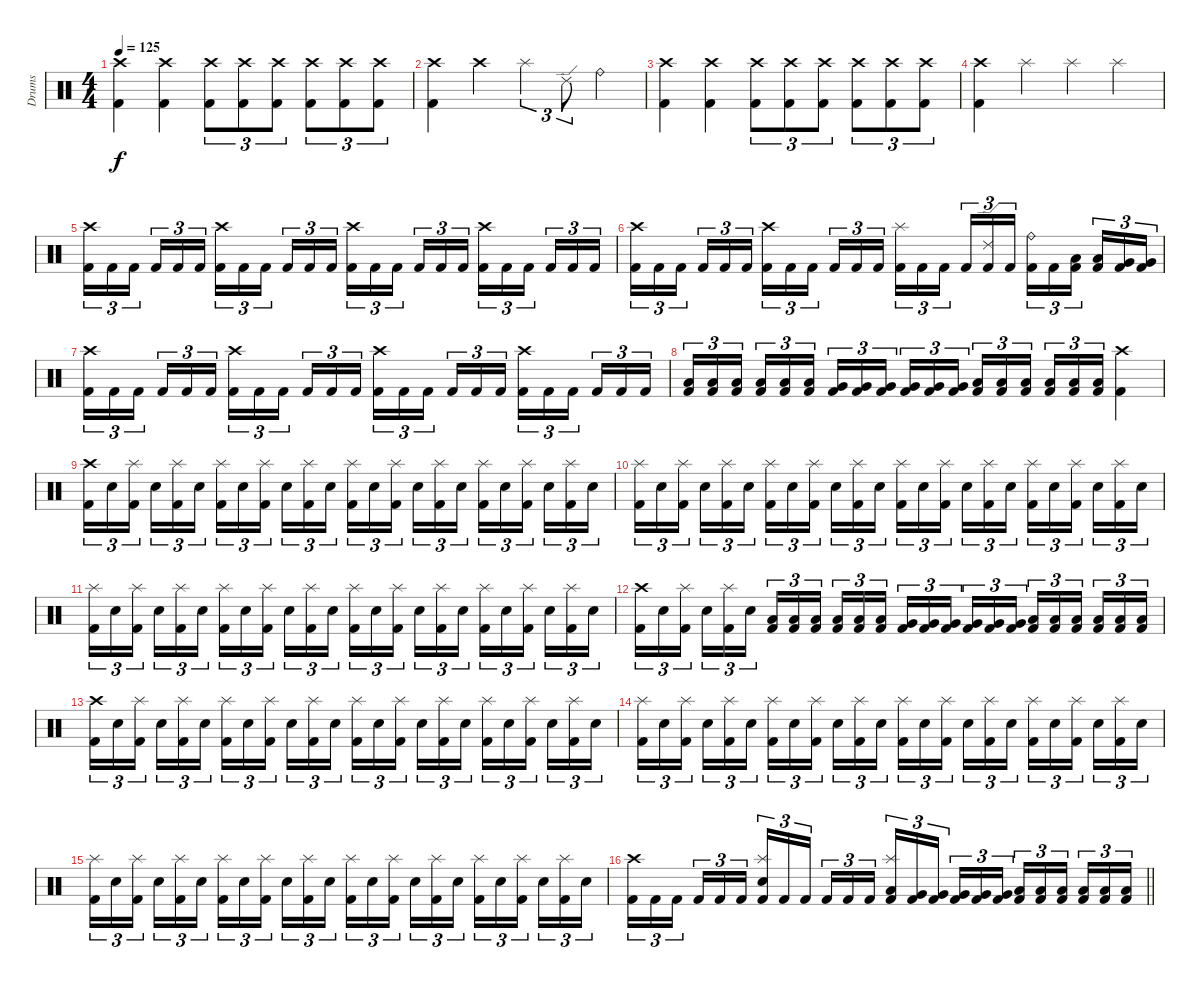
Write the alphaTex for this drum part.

\track ("Drums" "Drums") {instrument percussion}
\staff {score}
\articulation defaults
\ts (4 4)
\tempo 125
\clef neutral
\ks c
("Crash high (hit)" "Kick (hit) 2").4{dy f} ("Crash high (hit)" "Kick (hit) 2").4 ("Crash high (hit)" "Kick (hit) 2").8{tu (3 2)} ("Crash high (hit)" "Kick (hit) 2").8{tu (3 2)} ("Crash high (hit)" "Kick (hit) 2").8{tu (3 2)} ("Crash high (hit)" "Kick (hit) 2").8{tu (3 2)} ("Crash high (hit)" "Kick (hit) 2").8{tu (3 2)} ("Crash high (hit)" "Kick (hit) 2").8{tu (3 2)} |
("Crash high (hit)" "Kick (hit) 2").4 "Crash high (hit)".4 "Splash (hit)".4{tu (3 2)} "Ride (edge) 2".8{tu (3 2)} "Ride (bell)".4 |
("Crash high (hit)" "Kick (hit) 2").4 ("Crash high (hit)" "Kick (hit) 2").4 ("Crash high (hit)" "Kick (hit) 2").8{tu (3 2)} ("Crash high (hit)" "Kick (hit) 2").8{tu (3 2)} ("Crash high (hit)" "Kick (hit) 2").8{tu (3 2)} ("Crash high (hit)" "Kick (hit) 2").8{tu (3 2)} ("Crash high (hit)" "Kick (hit) 2").8{tu (3 2)} ("Crash high (hit)" "Kick (hit) 2").8{tu (3 2)} |
("Crash high (hit)" "Kick (hit) 2").4 "Splash (hit)".4 "Splash (hit)".4 "Splash (hit)".4 |
("Crash high (hit)" "Kick (hit) 2").16{tu (3 2)} "Kick (hit) 2".16{tu (3 2)} "Kick (hit) 2".16{tu (3 2) beam splitsecondary} "Kick (hit) 2".16{tu (3 2)} "Kick (hit) 2".16{tu (3 2)} "Kick (hit) 2".16{tu (3 2)} ("Crash high (hit)" "Kick (hit) 2").16{tu (3 2)} "Kick (hit) 2".16{tu (3 2)} "Kick (hit) 2".16{tu (3 2) beam splitsecondary} "Kick (hit) 2".16{tu (3 2)} "Kick (hit) 2".16{tu (3 2)} "Kick (hit) 2".16{tu (3 2)} ("Crash high (hit)" "Kick (hit) 2").16{tu (3 2)} "Kick (hit) 2".16{tu (3 2)} "Kick (hit) 2".16{tu (3 2) beam splitsecondary} "Kick (hit) 2".16{tu (3 2)} "Kick (hit) 2".16{tu (3 2)} "Kick (hit) 2".16{tu (3 2)} ("Crash high (hit)" "Kick (hit) 2").16{tu (3 2)} "Kick (hit) 2".16{tu (3 2)} "Kick (hit) 2".16{tu (3 2) beam splitsecondary} "Kick (hit) 2".16{tu (3 2)} "Kick (hit) 2".16{tu (3 2)} "Kick (hit) 2".16{tu (3 2)} |
("Crash high (hit)" "Kick (hit) 2").16{tu (3 2)} "Kick (hit) 2".16{tu (3 2)} "Kick (hit) 2".16{tu (3 2) beam splitsecondary} "Kick (hit) 2".16{tu (3 2)} "Kick (hit) 2".16{tu (3 2)} "Kick (hit) 2".16{tu (3 2)} ("Crash high (hit)" "Kick (hit) 2").16{tu (3 2)} "Kick (hit) 2".16{tu (3 2)} "Kick (hit) 2".16{tu (3 2) beam splitsecondary} "Kick (hit) 2".16{tu (3 2)} "Kick (hit) 2".16{tu (3 2)} "Kick (hit) 2".16{tu (3 2)} ("Splash (hit)" "Kick (hit) 2").16{tu (3 2)} "Kick (hit) 2".16{tu (3 2)} "Kick (hit) 2".16{tu (3 2) beam splitsecondary} "Kick (hit) 2".16{tu (3 2)} ("Ride (edge) 2" "Kick (hit) 2").16{tu (3 2)} "Kick (hit) 2".16{tu (3 2)} ("Ride (bell)" "Kick (hit) 2").16{tu (3 2)} "Kick (hit) 2".16{tu (3 2)} ("Low Tom (hit)" "Kick (hit) 2").16{tu (3 2) beam splitsecondary} ("Low Tom (hit)" "Kick (hit) 2").16{tu (3 2)} ("Very Low Tom (hit)" "Kick (hit) 2").16{tu (3 2)} ("Very Low Tom (hit)" "Kick (hit) 2").16{tu (3 2)} |
("Crash high (hit)" "Kick (hit) 2").16{tu (3 2)} "Kick (hit) 2".16{tu (3 2)} "Kick (hit) 2".16{tu (3 2) beam splitsecondary} "Kick (hit) 2".16{tu (3 2)} "Kick (hit) 2".16{tu (3 2)} "Kick (hit) 2".16{tu (3 2)} ("Crash high (hit)" "Kick (hit) 2").16{tu (3 2)} "Kick (hit) 2".16{tu (3 2)} "Kick (hit) 2".16{tu (3 2) beam splitsecondary} "Kick (hit) 2".16{tu (3 2)} "Kick (hit) 2".16{tu (3 2)} "Kick (hit) 2".16{tu (3 2)} ("Crash high (hit)" "Kick (hit) 2").16{tu (3 2)} "Kick (hit) 2".16{tu (3 2)} "Kick (hit) 2".16{tu (3 2) beam splitsecondary} "Kick (hit) 2".16{tu (3 2)} "Kick (hit) 2".16{tu (3 2)} "Kick (hit) 2".16{tu (3 2)} ("Crash high (hit)" "Kick (hit) 2").16{tu (3 2)} "Kick (hit) 2".16{tu (3 2)} "Kick (hit) 2".16{tu (3 2) beam splitsecondary} "Kick (hit) 2".16{tu (3 2)} "Kick (hit) 2".16{tu (3 2)} "Kick (hit) 2".16{tu (3 2)} |
("Low Tom (hit)" "Kick (hit) 2").16{tu (3 2)} ("Low Tom (hit)" "Kick (hit) 2").16{tu (3 2)} ("Low Tom (hit)" "Kick (hit) 2").16{tu (3 2) beam splitsecondary} ("Low Tom (hit)" "Kick (hit) 2").16{tu (3 2)} ("Low Tom (hit)" "Kick (hit) 2").16{tu (3 2)} ("Low Tom (hit)" "Kick (hit) 2").16{tu (3 2)} ("Very Low Tom (hit)" "Kick (hit) 2").16{tu (3 2)} ("Very Low Tom (hit)" "Kick (hit) 2").16{tu (3 2)} ("Very Low Tom (hit)" "Kick (hit) 2").16{tu (3 2) beam splitsecondary} ("Very Low Tom (hit)" "Kick (hit) 2").16{tu (3 2)} ("Very Low Tom (hit)" "Kick (hit) 2").16{tu (3 2)} ("Very Low Tom (hit)" "Kick (hit) 2").16{tu (3 2)} ("Low Floor Tom (hit)" "Kick (hit) 2").16{tu (3 2)} ("Low Floor Tom (hit)" "Kick (hit) 2").16{tu (3 2)} ("Low Floor Tom (hit)" "Kick (hit) 2").16{tu (3 2) beam splitsecondary} ("Low Floor Tom (hit)" "Kick (hit) 2").16{tu (3 2)} ("Low Floor Tom (hit)" "Kick (hit) 2").16{tu (3 2)} ("Low Floor Tom (hit)" "Kick (hit) 2").16{tu (3 2)} ("Crash high (hit)" "Kick (hit) 2").4 |
("Crash high (hit)" "Kick (hit) 2").16{tu (3 2)} "Electric Snare (hit)".16{tu (3 2)} ("Splash (hit)" "Kick (hit) 2").16{tu (3 2) beam splitsecondary} "Electric Snare (hit)".16{tu (3 2)} ("Splash (hit)" "Kick (hit) 2").16{tu (3 2)} "Electric Snare (hit)".16{tu (3 2)} ("Splash (hit)" "Kick (hit) 2").16{tu (3 2)} "Electric Snare (hit)".16{tu (3 2)} ("Splash (hit)" "Kick (hit) 2").16{tu (3 2) beam splitsecondary} "Electric Snare (hit)".16{tu (3 2)} ("Splash (hit)" "Kick (hit) 2").16{tu (3 2)} "Electric Snare (hit)".16{tu (3 2)} ("Splash (hit)" "Kick (hit) 2").16{tu (3 2)} "Electric Snare (hit)".16{tu (3 2)} ("Splash (hit)" "Kick (hit) 2").16{tu (3 2) beam splitsecondary} "Electric Snare (hit)".16{tu (3 2)} ("Splash (hit)" "Kick (hit) 2").16{tu (3 2)} "Electric Snare (hit)".16{tu (3 2)} ("Splash (hit)" "Kick (hit) 2").16{tu (3 2)} "Electric Snare (hit)".16{tu (3 2)} ("Splash (hit)" "Kick (hit) 2").16{tu (3 2) beam splitsecondary} "Electric Snare (hit)".16{tu (3 2)} ("Splash (hit)" "Kick (hit) 2").16{tu (3 2)} "Electric Snare (hit)".16{tu (3 2)} |
("Splash (hit)" "Kick (hit) 2").16{tu (3 2)} "Electric Snare (hit)".16{tu (3 2)} ("Splash (hit)" "Kick (hit) 2").16{tu (3 2) beam splitsecondary} "Electric Snare (hit)".16{tu (3 2)} ("Splash (hit)" "Kick (hit) 2").16{tu (3 2)} "Electric Snare (hit)".16{tu (3 2)} ("Splash (hit)" "Kick (hit) 2").16{tu (3 2)} "Electric Snare (hit)".16{tu (3 2)} ("Splash (hit)" "Kick (hit) 2").16{tu (3 2) beam splitsecondary} "Electric Snare (hit)".16{tu (3 2)} ("Splash (hit)" "Kick (hit) 2").16{tu (3 2)} "Electric Snare (hit)".16{tu (3 2)} ("Splash (hit)" "Kick (hit) 2").16{tu (3 2)} "Electric Snare (hit)".16{tu (3 2)} ("Splash (hit)" "Kick (hit) 2").16{tu (3 2) beam splitsecondary} "Electric Snare (hit)".16{tu (3 2)} ("Splash (hit)" "Kick (hit) 2").16{tu (3 2)} "Electric Snare (hit)".16{tu (3 2)} ("Splash (hit)" "Kick (hit) 2").16{tu (3 2)} "Electric Snare (hit)".16{tu (3 2)} ("Splash (hit)" "Kick (hit) 2").16{tu (3 2) beam splitsecondary} "Electric Snare (hit)".16{tu (3 2)} ("Splash (hit)" "Kick (hit) 2").16{tu (3 2)} "Electric Snare (hit)".16{tu (3 2)} |
("Splash (hit)" "Kick (hit) 2").16{tu (3 2)} "Electric Snare (hit)".16{tu (3 2)} ("Splash (hit)" "Kick (hit) 2").16{tu (3 2) beam splitsecondary} "Electric Snare (hit)".16{tu (3 2)} ("Splash (hit)" "Kick (hit) 2").16{tu (3 2)} "Electric Snare (hit)".16{tu (3 2)} ("Splash (hit)" "Kick (hit) 2").16{tu (3 2)} "Electric Snare (hit)".16{tu (3 2)} ("Splash (hit)" "Kick (hit) 2").16{tu (3 2) beam splitsecondary} "Electric Snare (hit)".16{tu (3 2)} ("Splash (hit)" "Kick (hit) 2").16{tu (3 2)} "Electric Snare (hit)".16{tu (3 2)} ("Splash (hit)" "Kick (hit) 2").16{tu (3 2)} "Electric Snare (hit)".16{tu (3 2)} ("Splash (hit)" "Kick (hit) 2").16{tu (3 2) beam splitsecondary} "Electric Snare (hit)".16{tu (3 2)} ("Splash (hit)" "Kick (hit) 2").16{tu (3 2)} "Electric Snare (hit)".16{tu (3 2)} ("Splash (hit)" "Kick (hit) 2").16{tu (3 2)} "Electric Snare (hit)".16{tu (3 2)} ("Splash (hit)" "Kick (hit) 2").16{tu (3 2) beam splitsecondary} "Electric Snare (hit)".16{tu (3 2)} ("Splash (hit)" "Kick (hit) 2").16{tu (3 2)} "Electric Snare (hit)".16{tu (3 2)} |
("Crash high (hit)" "Kick (hit) 2").16{tu (3 2)} "Electric Snare (hit)".16{tu (3 2)} ("Splash (hit)" "Kick (hit) 2").16{tu (3 2) beam splitsecondary} "Electric Snare (hit)".16{tu (3 2)} ("Splash (hit)" "Kick (hit) 2").16{tu (3 2)} "Electric Snare (hit)".16{tu (3 2)} ("Low Tom (hit)" "Kick (hit) 2").16{tu (3 2)} ("Low Tom (hit)" "Kick (hit) 2").16{tu (3 2)} ("Low Tom (hit)" "Kick (hit) 2").16{tu (3 2) beam splitsecondary} ("Low Tom (hit)" "Kick (hit) 2").16{tu (3 2)} ("Low Tom (hit)" "Kick (hit) 2").16{tu (3 2)} ("Low Tom (hit)" "Kick (hit) 2").16{tu (3 2)} ("Very Low Tom (hit)" "Kick (hit) 2").16{tu (3 2)} ("Very Low Tom (hit)" "Kick (hit) 2").16{tu (3 2)} ("Very Low Tom (hit)" "Kick (hit) 2").16{tu (3 2) beam splitsecondary} ("Very Low Tom (hit)" "Kick (hit) 2").16{tu (3 2)} ("Very Low Tom (hit)" "Kick (hit) 2").16{tu (3 2)} ("Very Low Tom (hit)" "Kick (hit) 2").16{tu (3 2)} ("Low Floor Tom (hit)" "Kick (hit) 2").16{tu (3 2)} ("Low Floor Tom (hit)" "Kick (hit) 2").16{tu (3 2)} ("Low Floor Tom (hit)" "Kick (hit) 2").16{tu (3 2) beam splitsecondary} ("Low Floor Tom (hit)" "Kick (hit) 2").16{tu (3 2)} ("Low Floor Tom (hit)" "Kick (hit) 2").16{tu (3 2)} ("Low Floor Tom (hit)" "Kick (hit) 2").16{tu (3 2)} |
("Crash high (hit)" "Kick (hit) 2").16{tu (3 2)} "Electric Snare (hit)".16{tu (3 2)} ("Splash (hit)" "Kick (hit) 2").16{tu (3 2) beam splitsecondary} "Electric Snare (hit)".16{tu (3 2)} ("Splash (hit)" "Kick (hit) 2").16{tu (3 2)} "Electric Snare (hit)".16{tu (3 2)} ("Splash (hit)" "Kick (hit) 2").16{tu (3 2)} "Electric Snare (hit)".16{tu (3 2)} ("Splash (hit)" "Kick (hit) 2").16{tu (3 2) beam splitsecondary} "Electric Snare (hit)".16{tu (3 2)} ("Splash (hit)" "Kick (hit) 2").16{tu (3 2)} "Electric Snare (hit)".16{tu (3 2)} ("Splash (hit)" "Kick (hit) 2").16{tu (3 2)} "Electric Snare (hit)".16{tu (3 2)} ("Splash (hit)" "Kick (hit) 2").16{tu (3 2) beam splitsecondary} "Electric Snare (hit)".16{tu (3 2)} ("Splash (hit)" "Kick (hit) 2").16{tu (3 2)} "Electric Snare (hit)".16{tu (3 2)} ("Splash (hit)" "Kick (hit) 2").16{tu (3 2)} "Electric Snare (hit)".16{tu (3 2)} ("Splash (hit)" "Kick (hit) 2").16{tu (3 2) beam splitsecondary} "Electric Snare (hit)".16{tu (3 2)} ("Splash (hit)" "Kick (hit) 2").16{tu (3 2)} "Electric Snare (hit)".16{tu (3 2)} |
("Splash (hit)" "Kick (hit) 2").16{tu (3 2)} "Electric Snare (hit)".16{tu (3 2)} ("Splash (hit)" "Kick (hit) 2").16{tu (3 2) beam splitsecondary} "Electric Snare (hit)".16{tu (3 2)} ("Splash (hit)" "Kick (hit) 2").16{tu (3 2)} "Electric Snare (hit)".16{tu (3 2)} ("Splash (hit)" "Kick (hit) 2").16{tu (3 2)} "Electric Snare (hit)".16{tu (3 2)} ("Splash (hit)" "Kick (hit) 2").16{tu (3 2) beam splitsecondary} "Electric Snare (hit)".16{tu (3 2)} ("Splash (hit)" "Kick (hit) 2").16{tu (3 2)} "Electric Snare (hit)".16{tu (3 2)} ("Splash (hit)" "Kick (hit) 2").16{tu (3 2)} "Electric Snare (hit)".16{tu (3 2)} ("Splash (hit)" "Kick (hit) 2").16{tu (3 2) beam splitsecondary} "Electric Snare (hit)".16{tu (3 2)} ("Splash (hit)" "Kick (hit) 2").16{tu (3 2)} "Electric Snare (hit)".16{tu (3 2)} ("Splash (hit)" "Kick (hit) 2").16{tu (3 2)} "Electric Snare (hit)".16{tu (3 2)} ("Splash (hit)" "Kick (hit) 2").16{tu (3 2) beam splitsecondary} "Electric Snare (hit)".16{tu (3 2)} ("Splash (hit)" "Kick (hit) 2").16{tu (3 2)} "Electric Snare (hit)".16{tu (3 2)} |
("Splash (hit)" "Kick (hit) 2").16{tu (3 2)} "Electric Snare (hit)".16{tu (3 2)} ("Splash (hit)" "Kick (hit) 2").16{tu (3 2) beam splitsecondary} "Electric Snare (hit)".16{tu (3 2)} ("Splash (hit)" "Kick (hit) 2").16{tu (3 2)} "Electric Snare (hit)".16{tu (3 2)} ("Splash (hit)" "Kick (hit) 2").16{tu (3 2)} "Electric Snare (hit)".16{tu (3 2)} ("Splash (hit)" "Kick (hit) 2").16{tu (3 2) beam splitsecondary} "Electric Snare (hit)".16{tu (3 2)} ("Splash (hit)" "Kick (hit) 2").16{tu (3 2)} "Electric Snare (hit)".16{tu (3 2)} ("Splash (hit)" "Kick (hit) 2").16{tu (3 2)} "Electric Snare (hit)".16{tu (3 2)} ("Splash (hit)" "Kick (hit) 2").16{tu (3 2) beam splitsecondary} "Electric Snare (hit)".16{tu (3 2)} ("Splash (hit)" "Kick (hit) 2").16{tu (3 2)} "Electric Snare (hit)".16{tu (3 2)} ("Splash (hit)" "Kick (hit) 2").16{tu (3 2)} "Electric Snare (hit)".16{tu (3 2)} ("Splash (hit)" "Kick (hit) 2").16{tu (3 2) beam splitsecondary} "Electric Snare (hit)".16{tu (3 2)} ("Splash (hit)" "Kick (hit) 2").16{tu (3 2)} "Electric Snare (hit)".16{tu (3 2)} |
\barLineRight lightlight
("Crash high (hit)" "Kick (hit) 2").16{tu (3 2)} "Kick (hit) 2".16{tu (3 2)} "Kick (hit) 2".16{tu (3 2) beam splitsecondary} "Kick (hit) 2".16{tu (3 2)} "Kick (hit) 2".16{tu (3 2)} "Kick (hit) 2".16{tu (3 2)} ("Splash (hit)" "Electric Snare (hit)" "Kick (hit) 2").16{tu (3 2)} "Kick (hit) 2".16{tu (3 2)} "Kick (hit) 2".16{tu (3 2) beam splitsecondary} "Kick (hit) 2".16{tu (3 2)} "Kick (hit) 2".16{tu (3 2)} "Kick (hit) 2".16{tu (3 2)} ("Splash (hit)" "Low Tom (hit)" "Kick (hit) 2").16{tu (3 2)} ("Very Low Tom (hit)" "Kick (hit) 2").16{tu (3 2)} ("Very Low Tom (hit)" "Kick (hit) 2").16{tu (3 2) beam splitsecondary} ("Very Low Tom (hit)" "Kick (hit) 2").16{tu (3 2)} ("Very Low Tom (hit)" "Kick (hit) 2").16{tu (3 2)} ("Very Low Tom (hit)" "Kick (hit) 2").16{tu (3 2)} ("Low Floor Tom (hit)" "Kick (hit) 2").16{tu (3 2)} ("Low Floor Tom (hit)" "Kick (hit) 2").16{tu (3 2)} ("Low Floor Tom (hit)" "Kick (hit) 2").16{tu (3 2) beam splitsecondary} ("Low Floor Tom (hit)" "Kick (hit) 2").16{tu (3 2)} ("Low Floor Tom (hit)" "Kick (hit) 2").16{tu (3 2)} ("Low Floor Tom (hit)" "Kick (hit) 2").16{tu (3 2)}
